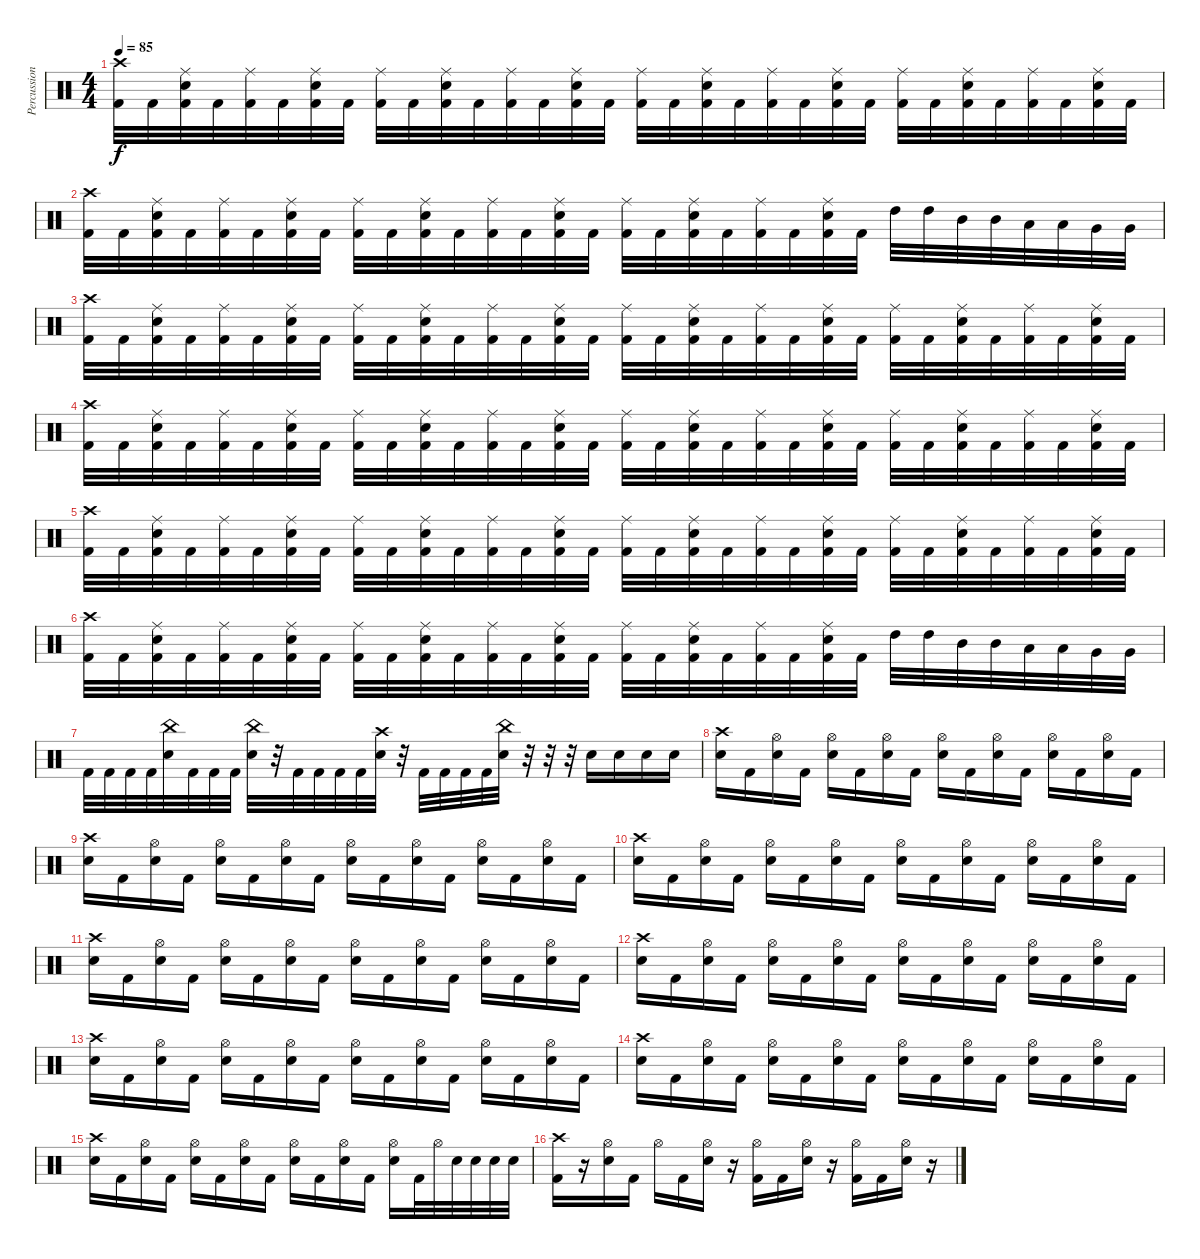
\track ("Percussions" "Percussion") {instrument percussion}
\staff {score}
\articulation defaults
\ts (4 4)
\tempo 85
\clef neutral
\ks c
("Crash high (hit)" "Kick (hit) 2").32{dy f} "Kick (hit) 2".32 ("Ride (middle)" "Snare (hit) 2" "Kick (hit) 2").32 "Kick (hit) 2".32 ("Ride (middle)" "Kick (hit) 2").32 "Kick (hit) 2".32 ("Ride (middle)" "Snare (hit) 2" "Kick (hit) 2").32 "Kick (hit) 2".32 ("Ride (middle)" "Kick (hit) 2").32 "Kick (hit) 2".32 ("Ride (middle)" "Snare (hit) 2" "Kick (hit) 2").32 "Kick (hit) 2".32 ("Ride (middle)" "Kick (hit) 2").32 "Kick (hit) 2".32 ("Ride (middle)" "Snare (hit) 2" "Kick (hit) 2").32 "Kick (hit) 2".32 ("Ride (middle)" "Kick (hit) 2").32 "Kick (hit) 2".32 ("Ride (middle)" "Snare (hit) 2" "Kick (hit) 2").32 "Kick (hit) 2".32 ("Ride (middle)" "Kick (hit) 2").32 "Kick (hit) 2".32 ("Ride (middle)" "Snare (hit) 2" "Kick (hit) 2").32 "Kick (hit) 2".32 ("Ride (middle)" "Kick (hit) 2").32 "Kick (hit) 2".32 ("Ride (middle)" "Snare (hit) 2" "Kick (hit) 2").32 "Kick (hit) 2".32 ("Ride (middle)" "Kick (hit) 2").32 "Kick (hit) 2".32 ("Ride (middle)" "Snare (hit) 2" "Kick (hit) 2").32 "Kick (hit) 2".32 |
("Crash high (hit)" "Kick (hit) 2").32 "Kick (hit) 2".32 ("Ride (middle)" "Snare (hit) 2" "Kick (hit) 2").32 "Kick (hit) 2".32 ("Ride (middle)" "Kick (hit) 2").32 "Kick (hit) 2".32 ("Ride (middle)" "Snare (hit) 2" "Kick (hit) 2").32 "Kick (hit) 2".32 ("Ride (middle)" "Kick (hit) 2").32 "Kick (hit) 2".32 ("Ride (middle)" "Snare (hit) 2" "Kick (hit) 2").32 "Kick (hit) 2".32 ("Ride (middle)" "Kick (hit) 2").32 "Kick (hit) 2".32 ("Ride (middle)" "Snare (hit) 2" "Kick (hit) 2").32 "Kick (hit) 2".32 ("Ride (middle)" "Kick (hit) 2").32 "Kick (hit) 2".32 ("Ride (middle)" "Snare (hit) 2" "Kick (hit) 2").32 "Kick (hit) 2".32 ("Ride (middle)" "Kick (hit) 2").32 "Kick (hit) 2".32 ("Ride (middle)" "Snare (hit) 2" "Kick (hit) 2").32 "Kick (hit) 2".32 "High Tom (hit)".32 "High Tom (hit)".32 "Mid Tom (hit)".32 "Mid Tom (hit)".32 "Low Tom (hit)".32 "Low Tom (hit)".32 "Very Low Tom (hit)".32 "Very Low Tom (hit)".32 |
("Crash high (hit)" "Kick (hit) 2").32 "Kick (hit) 2".32 ("Ride (middle)" "Snare (hit) 2" "Kick (hit) 2").32 "Kick (hit) 2".32 ("Ride (middle)" "Kick (hit) 2").32 "Kick (hit) 2".32 ("Ride (middle)" "Snare (hit) 2" "Kick (hit) 2").32 "Kick (hit) 2".32 ("Ride (middle)" "Kick (hit) 2").32 "Kick (hit) 2".32 ("Ride (middle)" "Snare (hit) 2" "Kick (hit) 2").32 "Kick (hit) 2".32 ("Ride (middle)" "Kick (hit) 2").32 "Kick (hit) 2".32 ("Ride (middle)" "Snare (hit) 2" "Kick (hit) 2").32 "Kick (hit) 2".32 ("Ride (middle)" "Kick (hit) 2").32 "Kick (hit) 2".32 ("Ride (middle)" "Snare (hit) 2" "Kick (hit) 2").32 "Kick (hit) 2".32 ("Ride (middle)" "Kick (hit) 2").32 "Kick (hit) 2".32 ("Ride (middle)" "Snare (hit) 2" "Kick (hit) 2").32 "Kick (hit) 2".32 ("Ride (middle)" "Kick (hit) 2").32 "Kick (hit) 2".32 ("Ride (middle)" "Snare (hit) 2" "Kick (hit) 2").32 "Kick (hit) 2".32 ("Ride (middle)" "Kick (hit) 2").32 "Kick (hit) 2".32 ("Ride (middle)" "Snare (hit) 2" "Kick (hit) 2").32 "Kick (hit) 2".32 |
("Crash high (hit)" "Kick (hit) 2").32 "Kick (hit) 2".32 ("Ride (middle)" "Snare (hit) 2" "Kick (hit) 2").32 "Kick (hit) 2".32 ("Ride (middle)" "Kick (hit) 2").32 "Kick (hit) 2".32 ("Ride (middle)" "Snare (hit) 2" "Kick (hit) 2").32 "Kick (hit) 2".32 ("Ride (middle)" "Kick (hit) 2").32 "Kick (hit) 2".32 ("Ride (middle)" "Snare (hit) 2" "Kick (hit) 2").32 "Kick (hit) 2".32 ("Ride (middle)" "Kick (hit) 2").32 "Kick (hit) 2".32 ("Ride (middle)" "Snare (hit) 2" "Kick (hit) 2").32 "Kick (hit) 2".32 ("Ride (middle)" "Kick (hit) 2").32 "Kick (hit) 2".32 ("Ride (middle)" "Snare (hit) 2" "Kick (hit) 2").32 "Kick (hit) 2".32 ("Ride (middle)" "Kick (hit) 2").32 "Kick (hit) 2".32 ("Ride (middle)" "Snare (hit) 2" "Kick (hit) 2").32 "Kick (hit) 2".32 ("Ride (middle)" "Kick (hit) 2").32 "Kick (hit) 2".32 ("Ride (middle)" "Snare (hit) 2" "Kick (hit) 2").32 "Kick (hit) 2".32 ("Ride (middle)" "Kick (hit) 2").32 "Kick (hit) 2".32 ("Ride (middle)" "Snare (hit) 2" "Kick (hit) 2").32 "Kick (hit) 2".32 |
("Crash high (hit)" "Kick (hit) 2").32 "Kick (hit) 2".32 ("Ride (middle)" "Snare (hit) 2" "Kick (hit) 2").32 "Kick (hit) 2".32 ("Ride (middle)" "Kick (hit) 2").32 "Kick (hit) 2".32 ("Ride (middle)" "Snare (hit) 2" "Kick (hit) 2").32 "Kick (hit) 2".32 ("Ride (middle)" "Kick (hit) 2").32 "Kick (hit) 2".32 ("Ride (middle)" "Snare (hit) 2" "Kick (hit) 2").32 "Kick (hit) 2".32 ("Ride (middle)" "Kick (hit) 2").32 "Kick (hit) 2".32 ("Ride (middle)" "Snare (hit) 2" "Kick (hit) 2").32 "Kick (hit) 2".32 ("Ride (middle)" "Kick (hit) 2").32 "Kick (hit) 2".32 ("Ride (middle)" "Snare (hit) 2" "Kick (hit) 2").32 "Kick (hit) 2".32 ("Ride (middle)" "Kick (hit) 2").32 "Kick (hit) 2".32 ("Ride (middle)" "Snare (hit) 2" "Kick (hit) 2").32 "Kick (hit) 2".32 ("Ride (middle)" "Kick (hit) 2").32 "Kick (hit) 2".32 ("Ride (middle)" "Snare (hit) 2" "Kick (hit) 2").32 "Kick (hit) 2".32 ("Ride (middle)" "Kick (hit) 2").32 "Kick (hit) 2".32 ("Ride (middle)" "Snare (hit) 2" "Kick (hit) 2").32 "Kick (hit) 2".32 |
("Crash high (hit)" "Kick (hit) 2").32 "Kick (hit) 2".32 ("Ride (middle)" "Snare (hit) 2" "Kick (hit) 2").32 "Kick (hit) 2".32 ("Ride (middle)" "Kick (hit) 2").32 "Kick (hit) 2".32 ("Ride (middle)" "Snare (hit) 2" "Kick (hit) 2").32 "Kick (hit) 2".32 ("Ride (middle)" "Kick (hit) 2").32 "Kick (hit) 2".32 ("Ride (middle)" "Snare (hit) 2" "Kick (hit) 2").32 "Kick (hit) 2".32 ("Ride (middle)" "Kick (hit) 2").32 "Kick (hit) 2".32 ("Ride (middle)" "Snare (hit) 2" "Kick (hit) 2").32 "Kick (hit) 2".32 ("Ride (middle)" "Kick (hit) 2").32 "Kick (hit) 2".32 ("Ride (middle)" "Snare (hit) 2" "Kick (hit) 2").32 "Kick (hit) 2".32 ("Ride (middle)" "Kick (hit) 2").32 "Kick (hit) 2".32 ("Ride (middle)" "Snare (hit) 2" "Kick (hit) 2").32 "Kick (hit) 2".32 "High Tom (hit)".32 "High Tom (hit)".32 "Mid Tom (hit)".32 "Mid Tom (hit)".32 "Low Tom (hit)".32 "Low Tom (hit)".32 "Very Low Tom (hit)".32 "Very Low Tom (hit)".32 |
"Kick (hit) 2".32 "Kick (hit) 2".32 "Kick (hit) 2".32 "Kick (hit) 2".32 ("China (hit)" "Snare (hit) 2").32 "Kick (hit) 2".32 "Kick (hit) 2".32 "Kick (hit) 2".32 ("China (hit)" "Snare (hit) 2").32 r.32 "Kick (hit) 2".32 "Kick (hit) 2".32 "Kick (hit) 2".32 "Kick (hit) 2".32 ("Crash high (hit)" "Snare (hit) 2").32 r.32 "Kick (hit) 2".32 "Kick (hit) 2".32 "Kick (hit) 2".32 "Kick (hit) 2".32 ("China (hit)" "Snare (hit) 2").32 r.32 r.32 r.32 "Snare (hit) 2".16 "Snare (hit) 2".16 "Snare (hit) 2".16 "Snare (hit) 2".16 |
("Crash high (hit)" "Snare (hit) 2").16 "Kick (hit) 2".16 ("Hi-Hat (open)" "Snare (hit) 2").16 "Kick (hit) 2".16 ("Hi-Hat (open)" "Snare (hit) 2").16 "Kick (hit) 2".16 ("Hi-Hat (open)" "Snare (hit) 2").16 "Kick (hit) 2".16 ("Hi-Hat (open)" "Snare (hit) 2").16 "Kick (hit) 2".16 ("Hi-Hat (open)" "Snare (hit) 2").16 "Kick (hit) 2".16 ("Hi-Hat (open)" "Snare (hit) 2").16 "Kick (hit) 2".16 ("Hi-Hat (open)" "Snare (hit) 2").16 "Kick (hit) 2".16 |
("Crash high (hit)" "Snare (hit) 2").16 "Kick (hit) 2".16 ("Hi-Hat (open)" "Snare (hit) 2").16 "Kick (hit) 2".16 ("Hi-Hat (open)" "Snare (hit) 2").16 "Kick (hit) 2".16 ("Hi-Hat (open)" "Snare (hit) 2").16 "Kick (hit) 2".16 ("Hi-Hat (open)" "Snare (hit) 2").16 "Kick (hit) 2".16 ("Hi-Hat (open)" "Snare (hit) 2").16 "Kick (hit) 2".16 ("Hi-Hat (open)" "Snare (hit) 2").16 "Kick (hit) 2".16 ("Hi-Hat (open)" "Snare (hit) 2").16 "Kick (hit) 2".16 |
("Crash high (hit)" "Snare (hit) 2").16 "Kick (hit) 2".16 ("Hi-Hat (open)" "Snare (hit) 2").16 "Kick (hit) 2".16 ("Hi-Hat (open)" "Snare (hit) 2").16 "Kick (hit) 2".16 ("Hi-Hat (open)" "Snare (hit) 2").16 "Kick (hit) 2".16 ("Hi-Hat (open)" "Snare (hit) 2").16 "Kick (hit) 2".16 ("Hi-Hat (open)" "Snare (hit) 2").16 "Kick (hit) 2".16 ("Hi-Hat (open)" "Snare (hit) 2").16 "Kick (hit) 2".16 ("Hi-Hat (open)" "Snare (hit) 2").16 "Kick (hit) 2".16 |
("Crash high (hit)" "Snare (hit) 2").16 "Kick (hit) 2".16 ("Hi-Hat (open)" "Snare (hit) 2").16 "Kick (hit) 2".16 ("Hi-Hat (open)" "Snare (hit) 2").16 "Kick (hit) 2".16 ("Hi-Hat (open)" "Snare (hit) 2").16 "Kick (hit) 2".16 ("Hi-Hat (open)" "Snare (hit) 2").16 "Kick (hit) 2".16 ("Hi-Hat (open)" "Snare (hit) 2").16 "Kick (hit) 2".16 ("Hi-Hat (open)" "Snare (hit) 2").16 "Kick (hit) 2".16 ("Hi-Hat (open)" "Snare (hit) 2").16 "Kick (hit) 2".16 |
("Crash high (hit)" "Snare (hit) 2").16 "Kick (hit) 2".16 ("Hi-Hat (open)" "Snare (hit) 2").16 "Kick (hit) 2".16 ("Hi-Hat (open)" "Snare (hit) 2").16 "Kick (hit) 2".16 ("Hi-Hat (open)" "Snare (hit) 2").16 "Kick (hit) 2".16 ("Hi-Hat (open)" "Snare (hit) 2").16 "Kick (hit) 2".16 ("Hi-Hat (open)" "Snare (hit) 2").16 "Kick (hit) 2".16 ("Hi-Hat (open)" "Snare (hit) 2").16 "Kick (hit) 2".16 ("Hi-Hat (open)" "Snare (hit) 2").16 "Kick (hit) 2".16 |
("Crash high (hit)" "Snare (hit) 2").16 "Kick (hit) 2".16 ("Hi-Hat (open)" "Snare (hit) 2").16 "Kick (hit) 2".16 ("Hi-Hat (open)" "Snare (hit) 2").16 "Kick (hit) 2".16 ("Hi-Hat (open)" "Snare (hit) 2").16 "Kick (hit) 2".16 ("Hi-Hat (open)" "Snare (hit) 2").16 "Kick (hit) 2".16 ("Hi-Hat (open)" "Snare (hit) 2").16 "Kick (hit) 2".16 ("Hi-Hat (open)" "Snare (hit) 2").16 "Kick (hit) 2".16 ("Hi-Hat (open)" "Snare (hit) 2").16 "Kick (hit) 2".16 |
("Crash high (hit)" "Snare (hit) 2").16 "Kick (hit) 2".16 ("Hi-Hat (open)" "Snare (hit) 2").16 "Kick (hit) 2".16 ("Hi-Hat (open)" "Snare (hit) 2").16 "Kick (hit) 2".16 ("Hi-Hat (open)" "Snare (hit) 2").16 "Kick (hit) 2".16 ("Hi-Hat (open)" "Snare (hit) 2").16 "Kick (hit) 2".16 ("Hi-Hat (open)" "Snare (hit) 2").16 "Kick (hit) 2".16 ("Hi-Hat (open)" "Snare (hit) 2").16 "Kick (hit) 2".16 ("Hi-Hat (open)" "Snare (hit) 2").16 "Kick (hit) 2".16 |
("Crash high (hit)" "Snare (hit) 2").16 "Kick (hit) 2".16 ("Hi-Hat (open)" "Snare (hit) 2").16 "Kick (hit) 2".16 ("Hi-Hat (open)" "Snare (hit) 2").16 "Kick (hit) 2".16 ("Hi-Hat (open)" "Snare (hit) 2").16 "Kick (hit) 2".16 ("Hi-Hat (open)" "Snare (hit) 2").16 "Kick (hit) 2".16 ("Hi-Hat (open)" "Snare (hit) 2").16 "Kick (hit) 2".16 ("Hi-Hat (open)" "Snare (hit) 2").16 "Kick (hit) 2".32 "Hi-Hat (open)".32 "Snare (hit) 2".32 "Snare (hit) 2".32 "Snare (hit) 2".32 "Snare (hit) 2".32 |
("Crash high (hit)" "Kick (hit) 2").16 r.16 ("Hi-Hat (open)" "Snare (hit) 2").16 "Kick (hit) 2".16 "Hi-Hat (open)".16 "Kick (hit) 2".16 ("Hi-Hat (open)" "Snare (hit) 2").16 r.16 ("Hi-Hat (open)" "Kick (hit) 2").16 "Kick (hit) 2".16 ("Hi-Hat (open)" "Snare (hit) 2").16 r.16 ("Hi-Hat (open)" "Kick (hit) 2").16 "Kick (hit) 2".16 ("Hi-Hat (open)" "Snare (hit) 2").16 r.16
